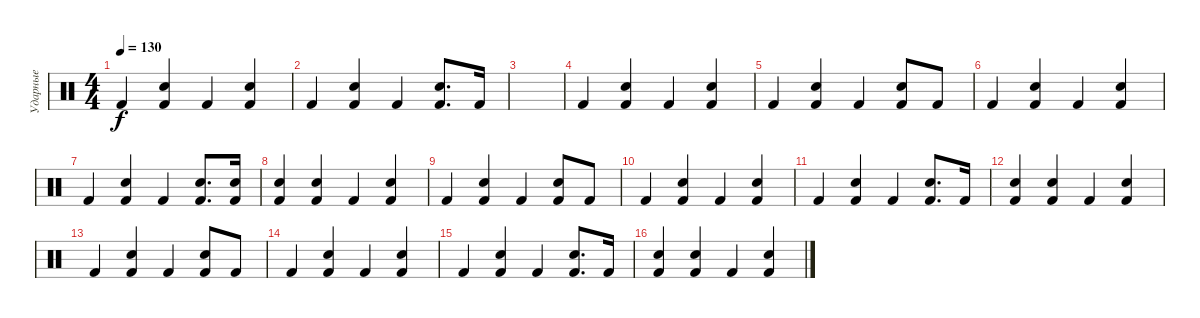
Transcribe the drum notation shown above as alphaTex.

\track ("Ударные" "Ударные") {instrument percussion}
\staff {score}
\articulation defaults
\ts (4 4)
\tempo 130
\clef neutral
\ks c "Kick (hit) 2".4{dy f}
("Hand Clap (hit)" "Kick (hit) 2").4 "Kick (hit) 2".4 ("Hand Clap (hit)" "Kick (hit) 2").4 |
"Kick (hit) 2".4 ("Hand Clap (hit)" "Kick (hit) 2").4 "Kick (hit) 2".4 ("Hand Clap (hit)" "Kick (hit) 2").8{d} "Kick (hit) 2".16 |
|
"Kick (hit) 2".4 ("Hand Clap (hit)" "Kick (hit) 2").4 "Kick (hit) 2".4 ("Hand Clap (hit)" "Kick (hit) 2").4 |
"Kick (hit) 2".4 ("Hand Clap (hit)" "Kick (hit) 2").4 "Kick (hit) 2".4 ("Hand Clap (hit)" "Kick (hit) 2").8 "Kick (hit) 2".8 |
"Kick (hit) 2".4 ("Hand Clap (hit)" "Kick (hit) 2").4 "Kick (hit) 2".4 ("Hand Clap (hit)" "Kick (hit) 2").4 |
"Kick (hit) 2".4 ("Hand Clap (hit)" "Kick (hit) 2").4 "Kick (hit) 2".4 ("Hand Clap (hit)" "Kick (hit) 2").8{d} ("Hand Clap (hit)" "Kick (hit) 2").16 |
("Hand Clap (hit)" "Kick (hit) 2").4 ("Hand Clap (hit)" "Kick (hit) 2").4 "Kick (hit) 2".4 ("Hand Clap (hit)" "Kick (hit) 2").4 |
"Kick (hit) 2".4 ("Hand Clap (hit)" "Kick (hit) 2").4 "Kick (hit) 2".4 ("Hand Clap (hit)" "Kick (hit) 2").8 "Kick (hit) 2".8 |
"Kick (hit) 2".4 ("Hand Clap (hit)" "Kick (hit) 2").4 "Kick (hit) 2".4 ("Hand Clap (hit)" "Kick (hit) 2").4 |
"Kick (hit) 2".4 ("Hand Clap (hit)" "Kick (hit) 2").4 "Kick (hit) 2".4 ("Hand Clap (hit)" "Kick (hit) 2").8{d} "Kick (hit) 2".16 |
("Hand Clap (hit)" "Kick (hit) 2").4 ("Hand Clap (hit)" "Kick (hit) 2").4 "Kick (hit) 2".4 ("Hand Clap (hit)" "Kick (hit) 2").4 |
"Kick (hit) 2".4 ("Hand Clap (hit)" "Kick (hit) 2").4 "Kick (hit) 2".4 ("Hand Clap (hit)" "Kick (hit) 2").8 "Kick (hit) 2".8 |
"Kick (hit) 2".4 ("Hand Clap (hit)" "Kick (hit) 2").4 "Kick (hit) 2".4 ("Hand Clap (hit)" "Kick (hit) 2").4 |
"Kick (hit) 2".4 ("Hand Clap (hit)" "Kick (hit) 2").4 "Kick (hit) 2".4 ("Hand Clap (hit)" "Kick (hit) 2").8{d} "Kick (hit) 2".16 |
("Hand Clap (hit)" "Kick (hit) 2").4 ("Hand Clap (hit)" "Kick (hit) 2").4 "Kick (hit) 2".4 ("Hand Clap (hit)" "Kick (hit) 2").4
